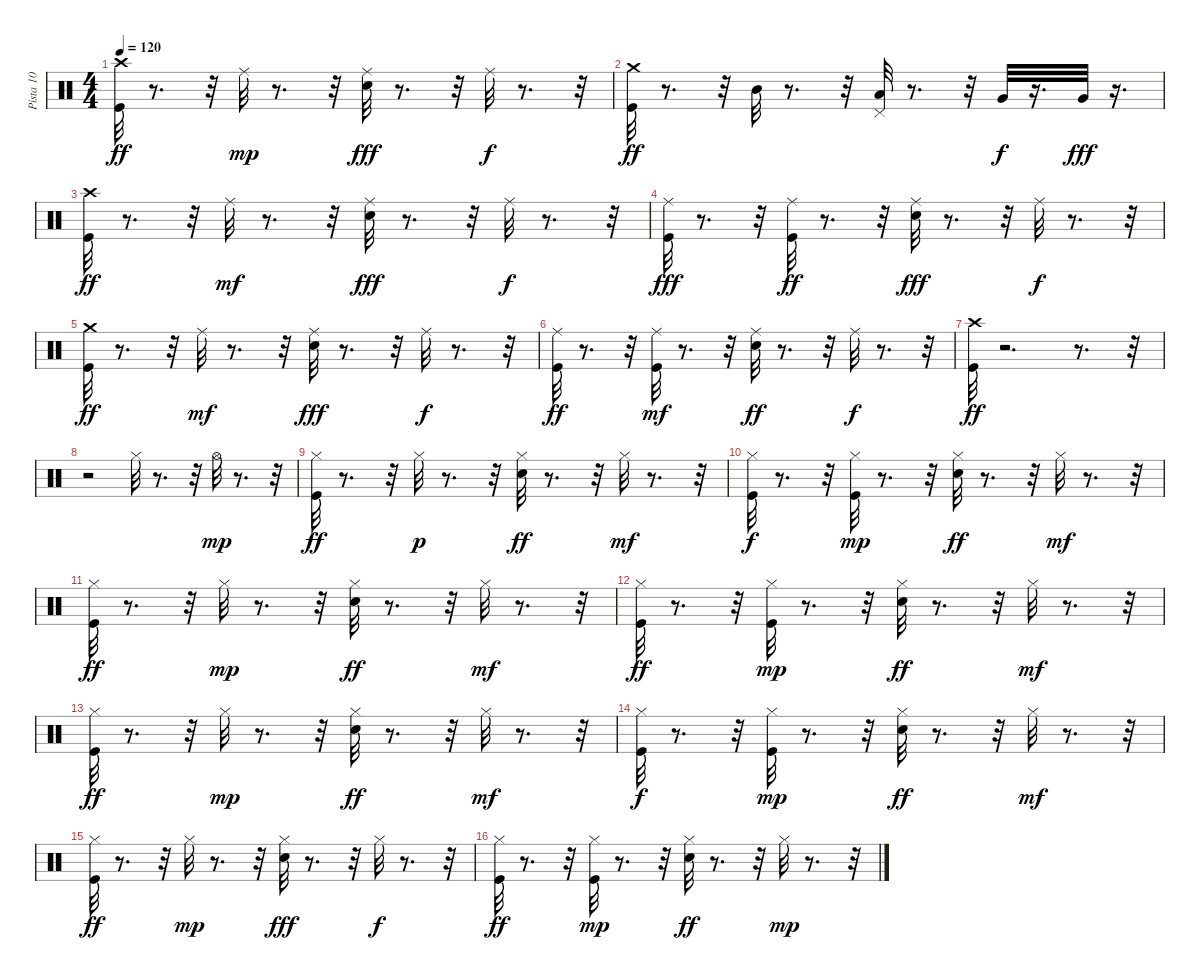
\track ("Pista 10" "Pista 10") {instrument percussion}
\staff {score}
\articulation defaults
\ts (4 4)
\tempo 120
\clef neutral
\ks c
("Kick (hit)" "Crash high (hit)").32{dy ff} r.8{d} r.32 "Ride (middle)".32{dy mp} r.8{d} r.32 ("Snare (hit) 2" "Ride (middle)").32{dy fff} r.8{d} r.32 "Ride (middle)".32{dy f} r.8{d} r.32 |
("Kick (hit)" "Crash medium (hit)").32{dy ff} r.8{d} r.32 "Mid Tom (hit)".32 r.8{d} r.32 ("Low Tom (hit)" "Pedal Hi-Hat (hit)").32 r.8{d} r.32 "Very Low Tom (hit)".32{dy f} r.16{d} "Very Low Tom (hit)".32{dy fff} r.16{d} |
("Kick (hit)" "Crash high (hit)").32{dy ff} r.8{d} r.32 "Ride (middle)".32{dy mf} r.8{d} r.32 ("Snare (hit) 2" "Ride (middle)").32{dy fff} r.8{d} r.32 "Ride (middle)".32{dy f} r.8{d} r.32 |
("Kick (hit)" "Ride (middle)").32{dy fff} r.8{d} r.32 ("Kick (hit)" "Ride (middle)").32{dy ff} r.8{d} r.32 ("Snare (hit) 2" "Ride (middle)").32{dy fff} r.8{d} r.32 "Ride (middle)".32{dy f} r.8{d} r.32 |
("Kick (hit)" "Crash medium (hit)").32{dy ff} r.8{d} r.32 "Ride (middle)".32{dy mf} r.8{d} r.32 ("Snare (hit) 2" "Ride (middle)").32{dy fff} r.8{d} r.32 "Ride (middle)".32{dy f} r.8{d} r.32 |
("Kick (hit)" "Ride (middle)").32{dy ff} r.8{d} r.32 ("Kick (hit)" "Ride (middle)").32{dy mf} r.8{d} r.32 ("Snare (hit) 2" "Ride (middle)").32{dy ff} r.8{d} r.32 "Ride (middle)".32{dy f} r.8{d} r.32 |
("Kick (hit)" "Crash high (hit)").32{dy ff} r.2{d} r.8{d} r.32 |
r.2 "Hi-Hat (closed)".32 r.8{d} r.32 "Hi-Hat (open)".32{dy mp} r.8{d} r.32 |
("Kick (hit)" "Hi-Hat (closed)").32{dy ff} r.8{d} r.32 "Hi-Hat (closed)".32{dy p} r.8{d} r.32 ("Snare (hit) 2" "Hi-Hat (closed)").32{dy ff} r.8{d} r.32 "Hi-Hat (closed)".32{dy mf} r.8{d} r.32 |
("Kick (hit)" "Hi-Hat (closed)").32{dy f} r.8{d} r.32 ("Kick (hit)" "Hi-Hat (closed)").32{dy mp} r.8{d} r.32 ("Snare (hit) 2" "Hi-Hat (closed)").32{dy ff} r.8{d} r.32 "Hi-Hat (closed)".32{dy mf} r.8{d} r.32 |
("Kick (hit)" "Hi-Hat (closed)").32{dy ff} r.8{d} r.32 "Hi-Hat (closed)".32{dy mp} r.8{d} r.32 ("Snare (hit) 2" "Hi-Hat (closed)").32{dy ff} r.8{d} r.32 "Hi-Hat (closed)".32{dy mf} r.8{d} r.32 |
("Kick (hit)" "Hi-Hat (closed)").32{dy ff} r.8{d} r.32 ("Kick (hit)" "Hi-Hat (closed)").32{dy mp} r.8{d} r.32 ("Snare (hit) 2" "Hi-Hat (closed)").32{dy ff} r.8{d} r.32 "Hi-Hat (closed)".32{dy mf} r.8{d} r.32 |
("Kick (hit)" "Hi-Hat (closed)").32{dy ff} r.8{d} r.32 "Hi-Hat (closed)".32{dy mp} r.8{d} r.32 ("Snare (hit) 2" "Hi-Hat (closed)").32{dy ff} r.8{d} r.32 "Hi-Hat (closed)".32{dy mf} r.8{d} r.32 |
("Kick (hit)" "Hi-Hat (closed)").32{dy f} r.8{d} r.32 ("Kick (hit)" "Hi-Hat (closed)").32{dy mp} r.8{d} r.32 ("Snare (hit) 2" "Hi-Hat (closed)").32{dy ff} r.8{d} r.32 "Hi-Hat (closed)".32{dy mf} r.8{d} r.32 |
("Kick (hit)" "Hi-Hat (closed)").32{dy ff} r.8{d} r.32 "Hi-Hat (closed)".32{dy mp} r.8{d} r.32 ("Snare (hit) 2" "Hi-Hat (closed)").32{dy fff} r.8{d} r.32 "Hi-Hat (closed)".32{dy f} r.8{d} r.32 |
("Kick (hit)" "Hi-Hat (closed)").32{dy ff} r.8{d} r.32 ("Kick (hit)" "Hi-Hat (closed)").32{dy mp} r.8{d} r.32 ("Snare (hit) 2" "Hi-Hat (closed)").32{dy ff} r.8{d} r.32 "Hi-Hat (closed)".32{dy mp} r.8{d} r.32
